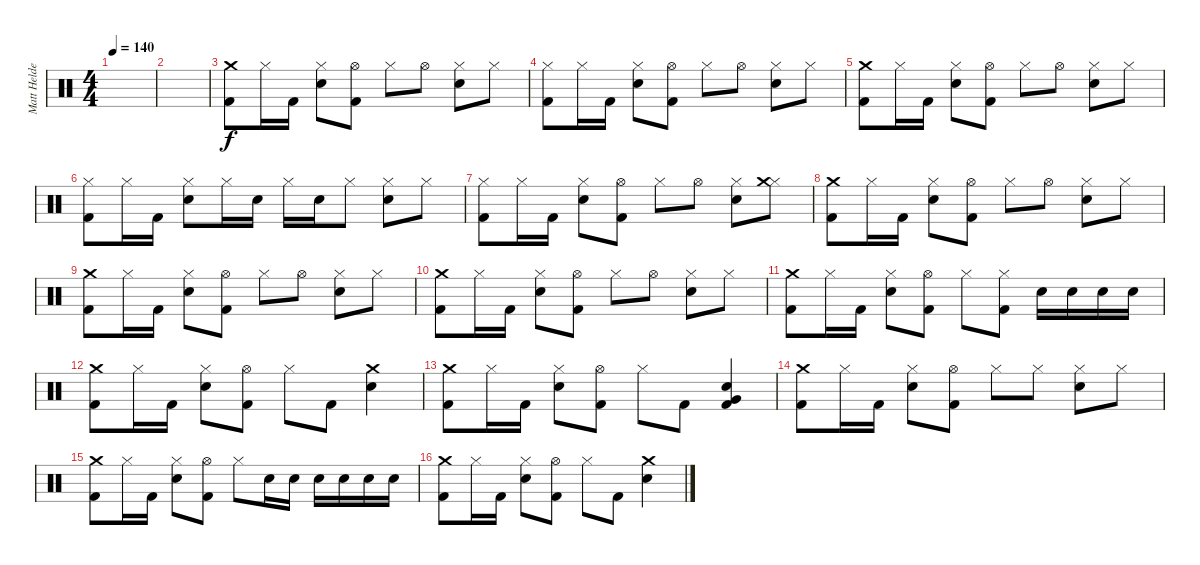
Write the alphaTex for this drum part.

\track ("Matt Helders" "Matt Helde") {instrument percussion}
\staff {score}
\articulation defaults
\ts (4 4)
\tempo 140
\clef neutral
\ks c
|
|
("Crash medium (hit)" "Kick (hit) 2").8 "Hi-Hat (closed)".16 "Kick (hit) 2".16 ("Hi-Hat (closed)" "Snare (hit) 2").8 ("Hi-Hat (open)" "Kick (hit) 2").8 "Hi-Hat (closed)".8 "Hi-Hat (open)".8 ("Hi-Hat (closed)" "Snare (hit) 2").8 "Hi-Hat (closed)".8 |
("Hi-Hat (closed)" "Kick (hit) 2").8 "Hi-Hat (closed)".16 "Kick (hit) 2".16 ("Hi-Hat (closed)" "Snare (hit) 2").8 ("Hi-Hat (open)" "Kick (hit) 2").8 "Hi-Hat (closed)".8 "Hi-Hat (open)".8 ("Hi-Hat (closed)" "Snare (hit) 2").8 "Hi-Hat (closed)".8 |
("Crash medium (hit)" "Kick (hit) 2").8 "Hi-Hat (closed)".16 "Kick (hit) 2".16 ("Hi-Hat (closed)" "Snare (hit) 2").8 ("Hi-Hat (open)" "Kick (hit) 2").8 "Hi-Hat (closed)".8 "Hi-Hat (open)".8 ("Hi-Hat (closed)" "Snare (hit) 2").8 "Hi-Hat (closed)".8 |
("Hi-Hat (closed)" "Kick (hit) 2").8 "Hi-Hat (closed)".16 "Kick (hit) 2".16 ("Hi-Hat (closed)" "Snare (hit) 2").8 "Hi-Hat (closed)".16 "Snare (hit) 2".16 "Hi-Hat (closed)".16 "Snare (hit) 2".16 "Hi-Hat (closed)".8 ("Hi-Hat (closed)" "Snare (hit) 2").8 "Hi-Hat (closed)".8 |
("Hi-Hat (closed)" "Kick (hit) 2").8 "Hi-Hat (closed)".16 "Kick (hit) 2".16 ("Hi-Hat (closed)" "Snare (hit) 2").8 ("Hi-Hat (open)" "Kick (hit) 2").8 "Hi-Hat (closed)".8 "Hi-Hat (open)".8 ("Hi-Hat (closed)" "Snare (hit) 2").8 ("Hi-Hat (closed)" "Crash medium (hit)").8 |
("Crash medium (hit)" "Kick (hit) 2").8 "Hi-Hat (closed)".16 "Kick (hit) 2".16 ("Hi-Hat (closed)" "Snare (hit) 2").8 ("Hi-Hat (open)" "Kick (hit) 2").8 "Hi-Hat (closed)".8 "Hi-Hat (open)".8 ("Hi-Hat (closed)" "Snare (hit) 2").8 "Hi-Hat (closed)".8 |
("Crash medium (hit)" "Kick (hit) 2").8 "Hi-Hat (closed)".16 "Kick (hit) 2".16 ("Hi-Hat (closed)" "Snare (hit) 2").8 ("Hi-Hat (open)" "Kick (hit) 2").8 "Hi-Hat (closed)".8 "Hi-Hat (open)".8 ("Hi-Hat (closed)" "Snare (hit) 2").8 "Hi-Hat (closed)".8 |
("Crash medium (hit)" "Kick (hit) 2").8 "Hi-Hat (closed)".16 "Kick (hit) 2".16 ("Hi-Hat (closed)" "Snare (hit) 2").8 ("Hi-Hat (open)" "Kick (hit) 2").8 "Hi-Hat (closed)".8 "Hi-Hat (open)".8 ("Hi-Hat (closed)" "Snare (hit) 2").8 "Hi-Hat (closed)".8 |
("Crash medium (hit)" "Kick (hit) 2").8 "Hi-Hat (closed)".16 "Kick (hit) 2".16 ("Hi-Hat (closed)" "Snare (hit) 2").8 ("Hi-Hat (open)" "Kick (hit) 2").8 "Hi-Hat (closed)".8 ("Hi-Hat (closed)" "Kick (hit) 2").8 "Snare (hit) 2".16 "Snare (hit) 2".16 "Snare (hit) 2".16 "Snare (hit) 2".16 |
("Crash medium (hit)" "Kick (hit) 2").8 "Hi-Hat (closed)".16 "Kick (hit) 2".16 ("Hi-Hat (closed)" "Snare (hit) 2").8 ("Hi-Hat (open)" "Kick (hit) 2").8 "Hi-Hat (closed)".8 "Kick (hit) 2".8 ("Crash medium (hit)" "Snare (hit) 2").4 |
("Crash medium (hit)" "Kick (hit) 2").8 "Hi-Hat (closed)".16 "Kick (hit) 2".16 ("Hi-Hat (closed)" "Snare (hit) 2").8 ("Hi-Hat (open)" "Kick (hit) 2").8 "Hi-Hat (closed)".8 "Kick (hit) 2".8 ("Very Low Tom (hit)" "Kick (hit) 2" "Snare (hit) 2").4 |
("Crash medium (hit)" "Kick (hit) 2").8 "Hi-Hat (closed)".16 "Kick (hit) 2".16 ("Hi-Hat (closed)" "Snare (hit) 2").8 ("Hi-Hat (open)" "Kick (hit) 2").8 "Hi-Hat (closed)".8 "Hi-Hat (closed)".8 ("Hi-Hat (closed)" "Snare (hit) 2").8 "Hi-Hat (closed)".8 |
("Crash medium (hit)" "Kick (hit) 2").8 "Hi-Hat (closed)".16 "Kick (hit) 2".16 ("Hi-Hat (closed)" "Snare (hit) 2").8 ("Hi-Hat (open)" "Kick (hit) 2").8 "Hi-Hat (closed)".8 "Snare (hit) 2".16 "Snare (hit) 2".16 "Snare (hit) 2".16 "Snare (hit) 2".16 "Snare (hit) 2".16 "Snare (hit) 2".16 |
("Crash medium (hit)" "Kick (hit) 2").8 "Hi-Hat (closed)".16 "Kick (hit) 2".16 ("Hi-Hat (closed)" "Snare (hit) 2").8 ("Hi-Hat (open)" "Kick (hit) 2").8 "Hi-Hat (closed)".8 "Kick (hit) 2".8 ("Crash medium (hit)" "Snare (hit) 2").4
